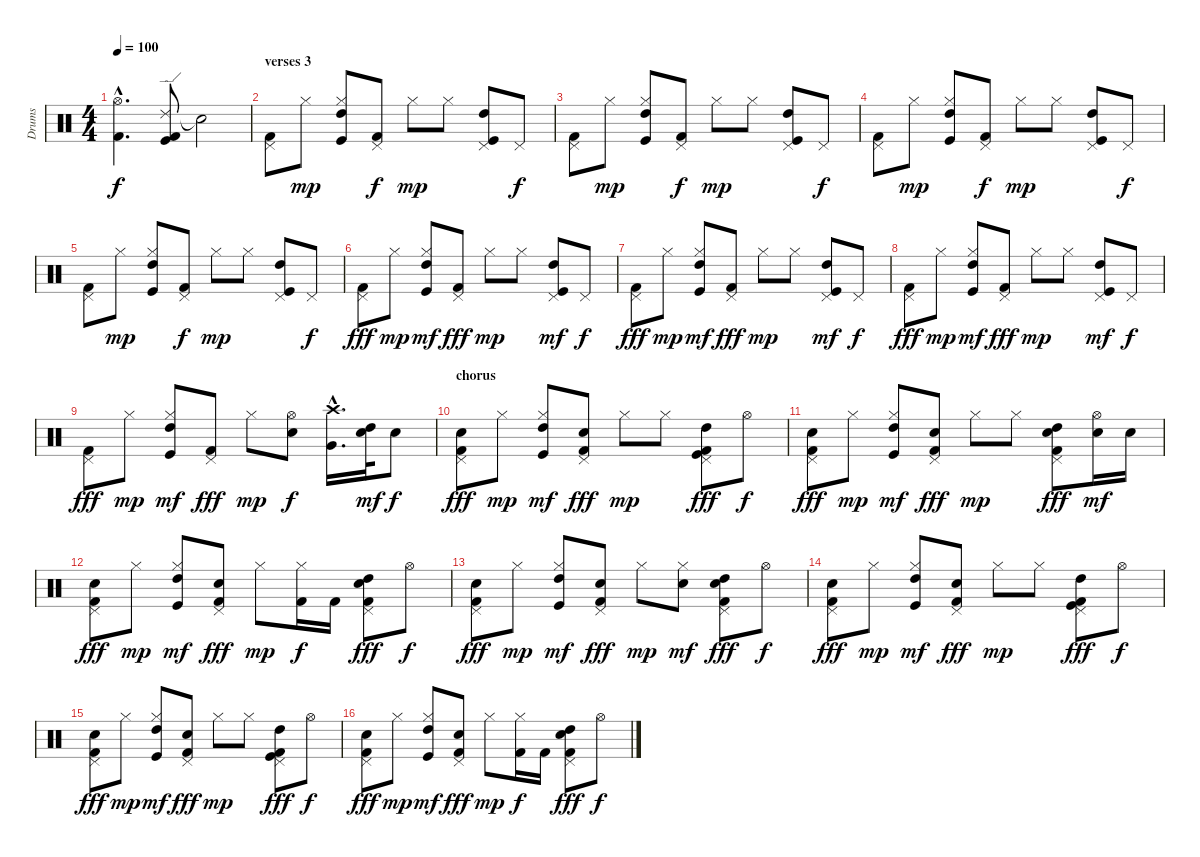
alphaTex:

\track ("Drums" "Drums") {instrument percussion}
\staff {score}
\articulation defaults
\ts (4 4)
\tempo 100
\clef neutral
\ks c
("Hi-Hat (open)"{hac} "Kick (hit) 2"{hac}).4{d dy f} ("Ride (edge) 2" "Kick (hit)" "Kick (hit) 2").8 "Snare (hit)"{t}.2 |
\section ("" "verses 3")
("Pedal Hi-Hat (hit)" "Kick (hit) 2").8 "Hi-Hat (closed)".8{dy mp} ("Hi-Hat (closed)" "Kick (hit)" "High Tom (hit)").8 ("Pedal Hi-Hat (hit)" "Kick (hit) 2").8{dy f} "Hi-Hat (closed)".8{dy mp} "Hi-Hat (closed)".8 ("Pedal Hi-Hat (hit)" "Kick (hit)" "High Tom (hit)").8 "Pedal Hi-Hat (hit)".8{dy f} |
("Pedal Hi-Hat (hit)" "Kick (hit) 2").8 "Hi-Hat (closed)".8{dy mp} ("Hi-Hat (closed)" "Kick (hit)" "High Tom (hit)").8 ("Pedal Hi-Hat (hit)" "Kick (hit) 2").8{dy f} "Hi-Hat (closed)".8{dy mp} "Hi-Hat (closed)".8 ("Pedal Hi-Hat (hit)" "Kick (hit)" "High Tom (hit)").8 "Pedal Hi-Hat (hit)".8{dy f} |
("Pedal Hi-Hat (hit)" "Kick (hit) 2").8 "Hi-Hat (closed)".8{dy mp} ("Hi-Hat (closed)" "Kick (hit)" "High Tom (hit)").8 ("Pedal Hi-Hat (hit)" "Kick (hit) 2").8{dy f} "Hi-Hat (closed)".8{dy mp} "Hi-Hat (closed)".8 ("Pedal Hi-Hat (hit)" "Kick (hit)" "High Tom (hit)").8 "Pedal Hi-Hat (hit)".8{dy f} |
("Pedal Hi-Hat (hit)" "Kick (hit) 2").8 "Hi-Hat (closed)".8{dy mp} ("Hi-Hat (closed)" "Kick (hit)" "High Tom (hit)").8 ("Pedal Hi-Hat (hit)" "Kick (hit) 2").8{dy f} "Hi-Hat (closed)".8{dy mp} "Hi-Hat (closed)".8 ("Pedal Hi-Hat (hit)" "Kick (hit)" "High Tom (hit)").8 "Pedal Hi-Hat (hit)".8{dy f} |
("Pedal Hi-Hat (hit)" "Kick (hit) 2").8{dy fff} "Hi-Hat (closed)".8{dy mp} ("Hi-Hat (closed)" "Kick (hit)" "High Tom (hit)").8{dy mf} ("Pedal Hi-Hat (hit)" "Kick (hit) 2").8{dy fff} "Hi-Hat (closed)".8{dy mp} "Hi-Hat (closed)".8 ("Pedal Hi-Hat (hit)" "Kick (hit)" "High Tom (hit)").8{dy mf} "Pedal Hi-Hat (hit)".8{dy f} |
("Pedal Hi-Hat (hit)" "Kick (hit) 2").8{dy fff} "Hi-Hat (closed)".8{dy mp} ("Hi-Hat (closed)" "Kick (hit)" "High Tom (hit)").8{dy mf} ("Pedal Hi-Hat (hit)" "Kick (hit) 2").8{dy fff} "Hi-Hat (closed)".8{dy mp} "Hi-Hat (closed)".8 ("Pedal Hi-Hat (hit)" "Kick (hit)" "High Tom (hit)").8{dy mf} "Pedal Hi-Hat (hit)".8{dy f} |
("Pedal Hi-Hat (hit)" "Kick (hit) 2").8{dy fff} "Hi-Hat (closed)".8{dy mp} ("Hi-Hat (closed)" "Kick (hit)" "High Tom (hit)").8{dy mf} ("Pedal Hi-Hat (hit)" "Kick (hit) 2").8{dy fff} "Hi-Hat (closed)".8{dy mp} "Hi-Hat (closed)".8 ("Pedal Hi-Hat (hit)" "Kick (hit)" "High Tom (hit)").8{dy mf} "Pedal Hi-Hat (hit)".8{dy f} |
("Pedal Hi-Hat (hit)" "Kick (hit) 2").8{dy fff} "Hi-Hat (closed)".8{dy mp} ("Hi-Hat (closed)" "Kick (hit)" "High Tom (hit)").8{dy mf} ("Pedal Hi-Hat (hit)" "Kick (hit) 2").8{dy fff} "Hi-Hat (closed)".8{dy mp} ("Hi-Hat (open)" "Snare (hit) 2").8{dy f} ("Crash high (hit)"{hac} "Very Low Tom (hit)"{hac}).16{d} ("Snare (hit) 2" "High Tom (hit)").32{dy mf} "Snare (hit) 2".8{dy f} |
\section ("" "chorus")
("Pedal Hi-Hat (hit)" "Snare (hit) 2" "Kick (hit) 2").8{dy fff} "Hi-Hat (closed)".8{dy mp} ("Hi-Hat (closed)" "Kick (hit)" "High Tom (hit)").8{dy mf} ("Pedal Hi-Hat (hit)" "Snare (hit) 2" "Kick (hit) 2").8{dy fff} "Hi-Hat (closed)".8{dy mp} "Hi-Hat (closed)".8 ("Pedal Hi-Hat (hit)" "Kick (hit)" "High Tom (hit)" "Kick (hit) 2").8{dy fff} "Hi-Hat (open)".8{dy f} |
("Pedal Hi-Hat (hit)" "Snare (hit) 2" "Kick (hit) 2").8{dy fff} "Hi-Hat (closed)".8{dy mp} ("Hi-Hat (closed)" "Kick (hit)" "High Tom (hit)").8{dy mf} ("Pedal Hi-Hat (hit)" "Snare (hit) 2" "Kick (hit) 2").8{dy fff} "Hi-Hat (closed)".8{dy mp} "Hi-Hat (closed)".8 ("Pedal Hi-Hat (hit)" "Snare (hit) 2" "High Tom (hit)" "Kick (hit) 2").8{dy fff} ("Hi-Hat (open)" "Snare (hit) 2").16{dy mf} "Snare (hit) 2".16 |
("Pedal Hi-Hat (hit)" "Snare (hit) 2" "Kick (hit) 2").8{dy fff} "Hi-Hat (closed)".8{dy mp} ("Hi-Hat (closed)" "Kick (hit)" "High Tom (hit)").8{dy mf} ("Pedal Hi-Hat (hit)" "Snare (hit) 2" "Kick (hit) 2").8{dy fff} "Hi-Hat (closed)".8{dy mp} ("Hi-Hat (closed)" "Kick (hit) 2").16{dy f} "Kick (hit) 2".16 ("Pedal Hi-Hat (hit)" "Snare (hit) 2" "High Tom (hit)" "Kick (hit) 2").8{dy fff} "Hi-Hat (open)".8{dy f} |
("Pedal Hi-Hat (hit)" "Snare (hit) 2" "Kick (hit) 2").8{dy fff} "Hi-Hat (closed)".8{dy mp} ("Hi-Hat (closed)" "Kick (hit)" "High Tom (hit)").8{dy mf} ("Pedal Hi-Hat (hit)" "Snare (hit) 2" "Kick (hit) 2").8{dy fff} "Hi-Hat (closed)".8{dy mp} ("Hi-Hat (closed)" "Snare (hit) 2").8{dy mf} ("Pedal Hi-Hat (hit)" "Snare (hit) 2" "High Tom (hit)" "Kick (hit) 2").8{dy fff} "Hi-Hat (open)".8{dy f} |
("Pedal Hi-Hat (hit)" "Snare (hit) 2" "Kick (hit) 2").8{dy fff} "Hi-Hat (closed)".8{dy mp} ("Hi-Hat (closed)" "Kick (hit)" "High Tom (hit)").8{dy mf} ("Pedal Hi-Hat (hit)" "Snare (hit) 2" "Kick (hit) 2").8{dy fff} "Hi-Hat (closed)".8{dy mp} "Hi-Hat (closed)".8 ("Pedal Hi-Hat (hit)" "Kick (hit)" "High Tom (hit)" "Kick (hit) 2").8{dy fff} "Hi-Hat (open)".8{dy f} |
("Pedal Hi-Hat (hit)" "Snare (hit) 2" "Kick (hit) 2").8{dy fff} "Hi-Hat (closed)".8{dy mp} ("Hi-Hat (closed)" "Kick (hit)" "High Tom (hit)").8{dy mf} ("Pedal Hi-Hat (hit)" "Snare (hit) 2" "Kick (hit) 2").8{dy fff} "Hi-Hat (closed)".8{dy mp} "Hi-Hat (closed)".8 ("Pedal Hi-Hat (hit)" "Kick (hit)" "High Tom (hit)" "Kick (hit) 2").8{dy fff} "Hi-Hat (open)".8{dy f} |
("Pedal Hi-Hat (hit)" "Snare (hit) 2" "Kick (hit) 2").8{dy fff} "Hi-Hat (closed)".8{dy mp} ("Hi-Hat (closed)" "Kick (hit)" "High Tom (hit)").8{dy mf} ("Pedal Hi-Hat (hit)" "Snare (hit) 2" "Kick (hit) 2").8{dy fff} "Hi-Hat (closed)".8{dy mp} ("Hi-Hat (closed)" "Kick (hit) 2").16{dy f} "Kick (hit) 2".16 ("Pedal Hi-Hat (hit)" "Snare (hit) 2" "High Tom (hit)" "Kick (hit) 2").8{dy fff} "Hi-Hat (open)".8{dy f}
